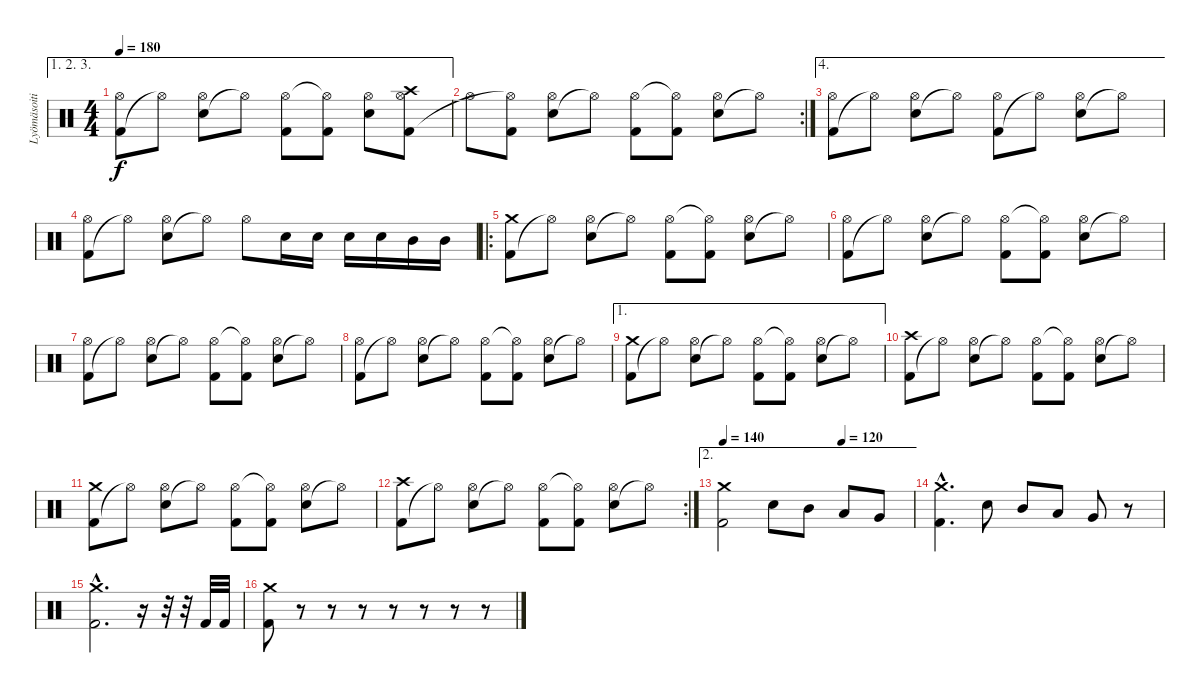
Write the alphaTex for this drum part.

\track ("Lyömäsoitin" "Lyömäsoiti") {instrument percussion}
\staff {score}
\articulation defaults
\ae (1 2 3)
\ts (4 4)
\tempo 180
\clef neutral
\ks c
("Kick (hit) 2" "Hi-Hat (open)").8{dy f} "Hi-Hat (open)"{t}.8 ("Electric Snare (hit)" "Hi-Hat (open)").8 "Hi-Hat (open)"{t}.8 ("Kick (hit) 2" "Hi-Hat (open)").8 ("Kick (hit) 2" "Hi-Hat (open)"{t}).8 ("Electric Snare (hit)" "Hi-Hat (open)").8 ("Crash high (hit)" "Kick (hit) 2" "Hi-Hat (open)"{t}).8 |
\rc 2 "Hi-Hat (open)".8
("Kick (hit) 2" "Hi-Hat (open)"{t}).8 ("Electric Snare (hit)" "Hi-Hat (open)").8 "Hi-Hat (open)"{t}.8 ("Kick (hit) 2" "Hi-Hat (open)").8 ("Kick (hit) 2" "Hi-Hat (open)"{t}).8 ("Electric Snare (hit)" "Hi-Hat (open)").8 "Hi-Hat (open)"{t}.8 |
\ae 4
("Kick (hit) 2" "Hi-Hat (open)").8 "Hi-Hat (open)"{t}.8 ("Electric Snare (hit)" "Hi-Hat (open)").8 "Hi-Hat (open)"{t}.8 ("Kick (hit) 2" "Hi-Hat (open)").8 "Hi-Hat (open)"{t}.8 ("Electric Snare (hit)" "Hi-Hat (open)").8 "Hi-Hat (open)"{t}.8 |
("Kick (hit) 2" "Hi-Hat (open)").8 "Hi-Hat (open)"{t}.8 ("Electric Snare (hit)" "Hi-Hat (open)").8 "Hi-Hat (open)"{t}.8 "Hi-Hat (open)".8 "Electric Snare (hit)".16 "Electric Snare (hit)".16 "Electric Snare (hit)".16 "Electric Snare (hit)".16 "Mid Tom (hit)".16 "Mid Tom (hit)".16 |
\ro
("Kick (hit) 2" "Crash medium (hit)").8 "Hi-Hat (open)"{t}.8 ("Electric Snare (hit)" "Hi-Hat (open)").8 "Hi-Hat (open)"{t}.8 ("Kick (hit) 2" "Hi-Hat (open)").8 ("Kick (hit) 2" "Hi-Hat (open)"{t}).8 ("Electric Snare (hit)" "Hi-Hat (open)").8 "Hi-Hat (open)"{t}.8 |
("Kick (hit) 2" "Hi-Hat (open)").8 "Hi-Hat (open)"{t}.8 ("Electric Snare (hit)" "Hi-Hat (open)").8 "Hi-Hat (open)"{t}.8 ("Kick (hit) 2" "Hi-Hat (open)").8 ("Kick (hit) 2" "Hi-Hat (open)"{t}).8 ("Electric Snare (hit)" "Hi-Hat (open)").8 "Hi-Hat (open)"{t}.8 |
("Kick (hit) 2" "Hi-Hat (open)").8 "Hi-Hat (open)"{t}.8 ("Electric Snare (hit)" "Hi-Hat (open)").8 "Hi-Hat (open)"{t}.8 ("Kick (hit) 2" "Hi-Hat (open)").8 ("Kick (hit) 2" "Hi-Hat (open)"{t}).8 ("Electric Snare (hit)" "Hi-Hat (open)").8 "Hi-Hat (open)"{t}.8 |
("Kick (hit) 2" "Hi-Hat (open)").8 "Hi-Hat (open)"{t}.8 ("Electric Snare (hit)" "Hi-Hat (open)").8 "Hi-Hat (open)"{t}.8 ("Kick (hit) 2" "Hi-Hat (open)").8 ("Kick (hit) 2" "Hi-Hat (open)"{t}).8 ("Electric Snare (hit)" "Hi-Hat (open)").8 "Hi-Hat (open)"{t}.8 |
\ae 1
("Kick (hit) 2" "Crash medium (hit)").8 "Hi-Hat (open)"{t}.8 ("Electric Snare (hit)" "Hi-Hat (open)").8 "Hi-Hat (open)"{t}.8 ("Kick (hit) 2" "Hi-Hat (open)").8 ("Kick (hit) 2" "Hi-Hat (open)"{t}).8 ("Electric Snare (hit)" "Hi-Hat (open)").8 "Hi-Hat (open)"{t}.8 |
("Kick (hit) 2" "Crash high (hit)").8 "Hi-Hat (open)"{t}.8 ("Electric Snare (hit)" "Hi-Hat (open)").8 "Hi-Hat (open)"{t}.8 ("Kick (hit) 2" "Hi-Hat (open)").8 ("Kick (hit) 2" "Hi-Hat (open)"{t}).8 ("Electric Snare (hit)" "Hi-Hat (open)").8 "Hi-Hat (open)"{t}.8 |
("Kick (hit) 2" "Crash medium (hit)").8 "Hi-Hat (open)"{t}.8 ("Electric Snare (hit)" "Hi-Hat (open)").8 "Hi-Hat (open)"{t}.8 ("Kick (hit) 2" "Hi-Hat (open)").8 ("Kick (hit) 2" "Hi-Hat (open)"{t}).8 ("Electric Snare (hit)" "Hi-Hat (open)").8 "Hi-Hat (open)"{t}.8 |
\rc 2
("Kick (hit) 2" "Crash high (hit)").8 "Hi-Hat (open)"{t}.8 ("Electric Snare (hit)" "Hi-Hat (open)").8 "Hi-Hat (open)"{t}.8 ("Kick (hit) 2" "Hi-Hat (open)").8 ("Kick (hit) 2" "Hi-Hat (open)"{t}).8 ("Electric Snare (hit)" "Hi-Hat (open)").8 "Hi-Hat (open)"{t}.8 |
\ae 2
\tempo 140
\tempo (120 0.625)
("Kick (hit) 2" "Crash medium (hit)").2 "Electric Snare (hit)".8 "Mid Tom (hit)".8 "Low Tom (hit)".8 "Very Low Tom (hit)".8 |
("Kick (hit) 2"{hac} "Crash medium (hit)"{hac}).4{d} "Electric Snare (hit)".8 "Mid Tom (hit)".8 "Low Tom (hit)".8 "Very Low Tom (hit)".8 r.8 |
("Kick (hit) 2"{hac} "Crash medium (hit)"{hac}).2{d} r.16 r.32 r.32 "Kick (hit) 2".32 "Kick (hit) 2".32 |
("Kick (hit) 2" "Crash medium (hit)").8 r.8 r.8 r.8 r.8 r.8 r.8 r.8
